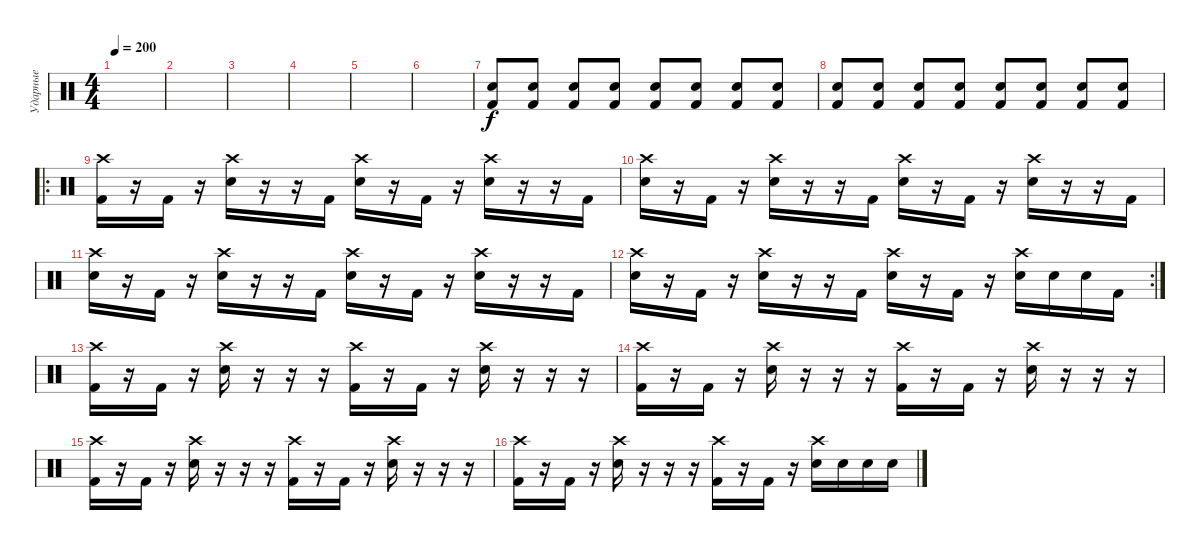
\track ("Ударные" "Ударные") {instrument percussion}
\staff {score}
\articulation defaults
\ts (4 4)
\tempo 200
\clef neutral
\ks c
|
|
|
|
|
|
("Electric Snare (hit)" "Kick (hit) 2").8 ("Electric Snare (hit)" "Kick (hit) 2").8 ("Electric Snare (hit)" "Kick (hit) 2").8 ("Electric Snare (hit)" "Kick (hit) 2").8 ("Electric Snare (hit)" "Kick (hit) 2").8 ("Electric Snare (hit)" "Kick (hit) 2").8 ("Electric Snare (hit)" "Kick (hit) 2").8 ("Electric Snare (hit)" "Kick (hit) 2").8 |
("Electric Snare (hit)" "Kick (hit) 2").8 ("Electric Snare (hit)" "Kick (hit) 2").8 ("Electric Snare (hit)" "Kick (hit) 2").8 ("Electric Snare (hit)" "Kick (hit) 2").8 ("Electric Snare (hit)" "Kick (hit) 2").8 ("Electric Snare (hit)" "Kick (hit) 2").8 ("Electric Snare (hit)" "Kick (hit) 2").8 ("Electric Snare (hit)" "Kick (hit) 2").8 |
\ro
("Crash high (hit)" "Kick (hit) 2").16 r.16 "Kick (hit) 2".16 r.16 ("Crash high (hit)" "Electric Snare (hit)").16 r.16 r.16 "Kick (hit) 2".16 ("Crash high (hit)" "Electric Snare (hit)").16 r.16 "Kick (hit) 2".16 r.16 ("Crash high (hit)" "Electric Snare (hit)").16 r.16 r.16 "Kick (hit) 2".16 |
("Crash high (hit)" "Electric Snare (hit)").16 r.16 "Kick (hit) 2".16 r.16 ("Crash high (hit)" "Electric Snare (hit)").16 r.16 r.16 "Kick (hit) 2".16 ("Crash high (hit)" "Electric Snare (hit)").16 r.16 "Kick (hit) 2".16 r.16 ("Crash high (hit)" "Electric Snare (hit)").16 r.16 r.16 "Kick (hit) 2".16 |
("Crash high (hit)" "Electric Snare (hit)").16 r.16 "Kick (hit) 2".16 r.16 ("Crash high (hit)" "Electric Snare (hit)").16 r.16 r.16 "Kick (hit) 2".16 ("Crash high (hit)" "Electric Snare (hit)").16 r.16 "Kick (hit) 2".16 r.16 ("Crash high (hit)" "Electric Snare (hit)").16 r.16 r.16 "Kick (hit) 2".16 |
\rc 2
("Crash high (hit)" "Electric Snare (hit)").16 r.16 "Kick (hit) 2".16 r.16 ("Crash high (hit)" "Electric Snare (hit)").16 r.16 r.16 "Kick (hit) 2".16 ("Crash high (hit)" "Electric Snare (hit)").16 r.16 "Kick (hit) 2".16 r.16 ("Crash high (hit)" "Electric Snare (hit)").16 "Electric Snare (hit)".16 "Electric Snare (hit)".16 "Kick (hit) 2".16 |
("Crash high (hit)" "Kick (hit) 2").16 r.16 "Kick (hit) 2".16 r.16 ("Crash high (hit)" "Electric Snare (hit)").16 r.16 r.16 r.16 ("Crash high (hit)" "Kick (hit) 2").16 r.16 "Kick (hit) 2".16 r.16 ("Crash high (hit)" "Electric Snare (hit)").16 r.16 r.16 r.16 |
("Crash high (hit)" "Kick (hit) 2").16 r.16 "Kick (hit) 2".16 r.16 ("Crash high (hit)" "Electric Snare (hit)").16 r.16 r.16 r.16 ("Crash high (hit)" "Kick (hit) 2").16 r.16 "Kick (hit) 2".16 r.16 ("Crash high (hit)" "Electric Snare (hit)").16 r.16 r.16 r.16 |
("Crash high (hit)" "Kick (hit) 2").16 r.16 "Kick (hit) 2".16 r.16 ("Crash high (hit)" "Electric Snare (hit)").16 r.16 r.16 r.16 ("Crash high (hit)" "Kick (hit) 2").16 r.16 "Kick (hit) 2".16 r.16 ("Crash high (hit)" "Electric Snare (hit)").16 r.16 r.16 r.16 |
("Crash high (hit)" "Kick (hit) 2").16 r.16 "Kick (hit) 2".16 r.16 ("Crash high (hit)" "Electric Snare (hit)").16 r.16 r.16 r.16 ("Crash high (hit)" "Kick (hit) 2").16 r.16 "Kick (hit) 2".16 r.16 ("Crash high (hit)" "Electric Snare (hit)").16 "Electric Snare (hit)".16 "Electric Snare (hit)".16 "Electric Snare (hit)".16
